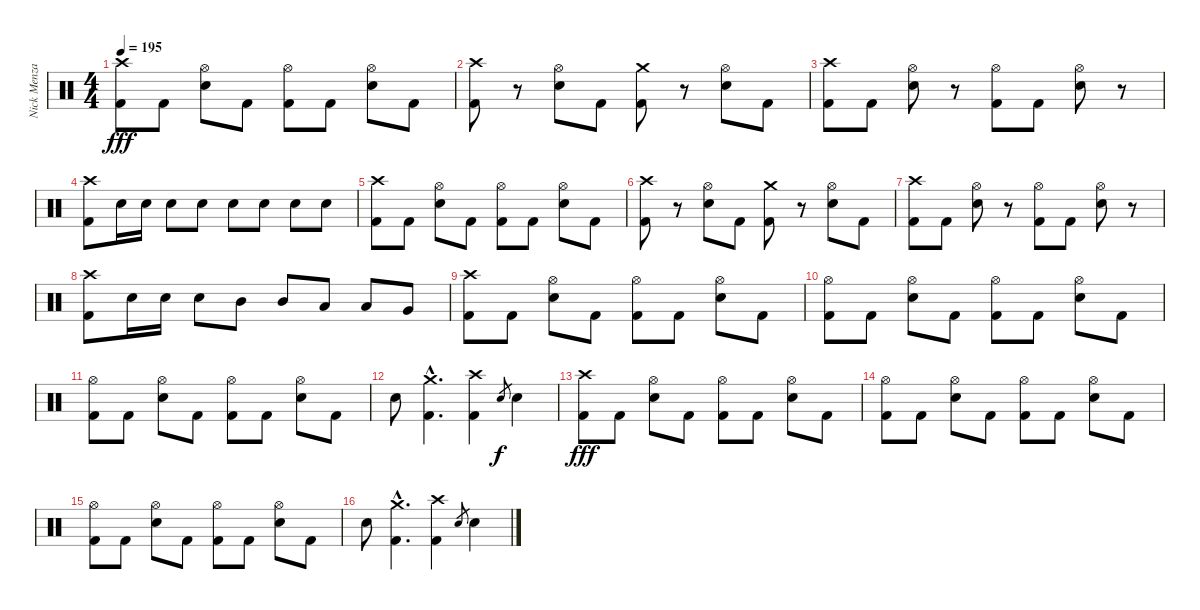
\track ("Nick Menza" "Nick Menza") {instrument percussion}
\staff {score}
\articulation defaults
\ts (4 4)
\tempo 195
\clef neutral
\ks c
("Kick (hit) 2" "Crash high (hit)").8{dy fff} "Kick (hit) 2".8 ("Electric Snare (hit)" "Hi-Hat (open)").8 "Kick (hit) 2".8 ("Kick (hit) 2" "Hi-Hat (open)").8 "Kick (hit) 2".8 ("Electric Snare (hit)" "Hi-Hat (open)").8 "Kick (hit) 2".8 |
("Kick (hit) 2" "Crash high (hit)").8 r.8 ("Electric Snare (hit)" "Hi-Hat (open)").8 "Kick (hit) 2".8 ("Kick (hit) 2" "Crash medium (hit)").8 r.8 ("Electric Snare (hit)" "Hi-Hat (open)").8 "Kick (hit) 2".8 |
("Kick (hit) 2" "Crash high (hit)").8 "Kick (hit) 2".8 ("Electric Snare (hit)" "Hi-Hat (open)").8 r.8 ("Kick (hit) 2" "Hi-Hat (open)").8 "Kick (hit) 2".8 ("Electric Snare (hit)" "Hi-Hat (open)").8 r.8 |
("Kick (hit) 2" "Crash high (hit)").8 "Electric Snare (hit)".16 "Electric Snare (hit)".16 "Electric Snare (hit)".8 "Electric Snare (hit)".8 "Electric Snare (hit)".8 "Electric Snare (hit)".8 "Electric Snare (hit)".8 "Electric Snare (hit)".8 |
("Kick (hit) 2" "Crash high (hit)").8 "Kick (hit) 2".8 ("Electric Snare (hit)" "Hi-Hat (open)").8 "Kick (hit) 2".8 ("Kick (hit) 2" "Hi-Hat (open)").8 "Kick (hit) 2".8 ("Electric Snare (hit)" "Hi-Hat (open)").8 "Kick (hit) 2".8 |
("Kick (hit) 2" "Crash high (hit)").8 r.8 ("Electric Snare (hit)" "Hi-Hat (open)").8 "Kick (hit) 2".8 ("Kick (hit) 2" "Crash medium (hit)").8 r.8 ("Electric Snare (hit)" "Hi-Hat (open)").8 "Kick (hit) 2".8 |
("Kick (hit) 2" "Crash high (hit)").8 "Kick (hit) 2".8 ("Electric Snare (hit)" "Hi-Hat (open)").8 r.8 ("Kick (hit) 2" "Hi-Hat (open)").8 "Kick (hit) 2".8 ("Electric Snare (hit)" "Hi-Hat (open)").8 r.8 |
("Kick (hit) 2" "Crash high (hit)").8 "Electric Snare (hit)".16 "Electric Snare (hit)".16 "Electric Snare (hit)".8 "Mid Tom (hit)".8 "Mid Tom (hit)".8 "Low Tom (hit)".8 "Low Tom (hit)".8 "Very Low Tom (hit)".8 |
("Kick (hit) 2" "Crash high (hit)").8 "Kick (hit) 2".8 ("Electric Snare (hit)" "Hi-Hat (open)").8 "Kick (hit) 2".8 ("Kick (hit) 2" "Hi-Hat (open)").8 "Kick (hit) 2".8 ("Electric Snare (hit)" "Hi-Hat (open)").8 "Kick (hit) 2".8 |
("Kick (hit) 2" "Hi-Hat (open)").8 "Kick (hit) 2".8 ("Electric Snare (hit)" "Hi-Hat (open)").8 "Kick (hit) 2".8 ("Kick (hit) 2" "Hi-Hat (open)").8 "Kick (hit) 2".8 ("Electric Snare (hit)" "Hi-Hat (open)").8 "Kick (hit) 2".8 |
("Kick (hit) 2" "Hi-Hat (open)").8 "Kick (hit) 2".8 ("Electric Snare (hit)" "Hi-Hat (open)").8 "Kick (hit) 2".8 ("Kick (hit) 2" "Hi-Hat (open)").8 "Kick (hit) 2".8 ("Electric Snare (hit)" "Hi-Hat (open)").8 "Kick (hit) 2".8 |
"Electric Snare (hit)".8 ("Kick (hit) 2"{hac} "Crash medium (hit)"{hac}).4{d} ("Kick (hit) 2" "Crash high (hit)").4 "Electric Snare (hit)".8{gr dy f} "Electric Snare (hit)".4 |
("Kick (hit) 2" "Crash high (hit)").8{dy fff} "Kick (hit) 2".8 ("Electric Snare (hit)" "Hi-Hat (open)").8 "Kick (hit) 2".8 ("Kick (hit) 2" "Hi-Hat (open)").8 "Kick (hit) 2".8 ("Electric Snare (hit)" "Hi-Hat (open)").8 "Kick (hit) 2".8 |
("Kick (hit) 2" "Hi-Hat (open)").8 "Kick (hit) 2".8 ("Electric Snare (hit)" "Hi-Hat (open)").8 "Kick (hit) 2".8 ("Kick (hit) 2" "Hi-Hat (open)").8 "Kick (hit) 2".8 ("Electric Snare (hit)" "Hi-Hat (open)").8 "Kick (hit) 2".8 |
("Kick (hit) 2" "Hi-Hat (open)").8 "Kick (hit) 2".8 ("Electric Snare (hit)" "Hi-Hat (open)").8 "Kick (hit) 2".8 ("Kick (hit) 2" "Hi-Hat (open)").8 "Kick (hit) 2".8 ("Electric Snare (hit)" "Hi-Hat (open)").8 "Kick (hit) 2".8 |
"Electric Snare (hit)".8 ("Kick (hit) 2"{hac} "Crash medium (hit)"{hac}).4{d} ("Kick (hit) 2" "Crash high (hit)").4 "Electric Snare (hit)".8{gr} "Electric Snare (hit)".4
